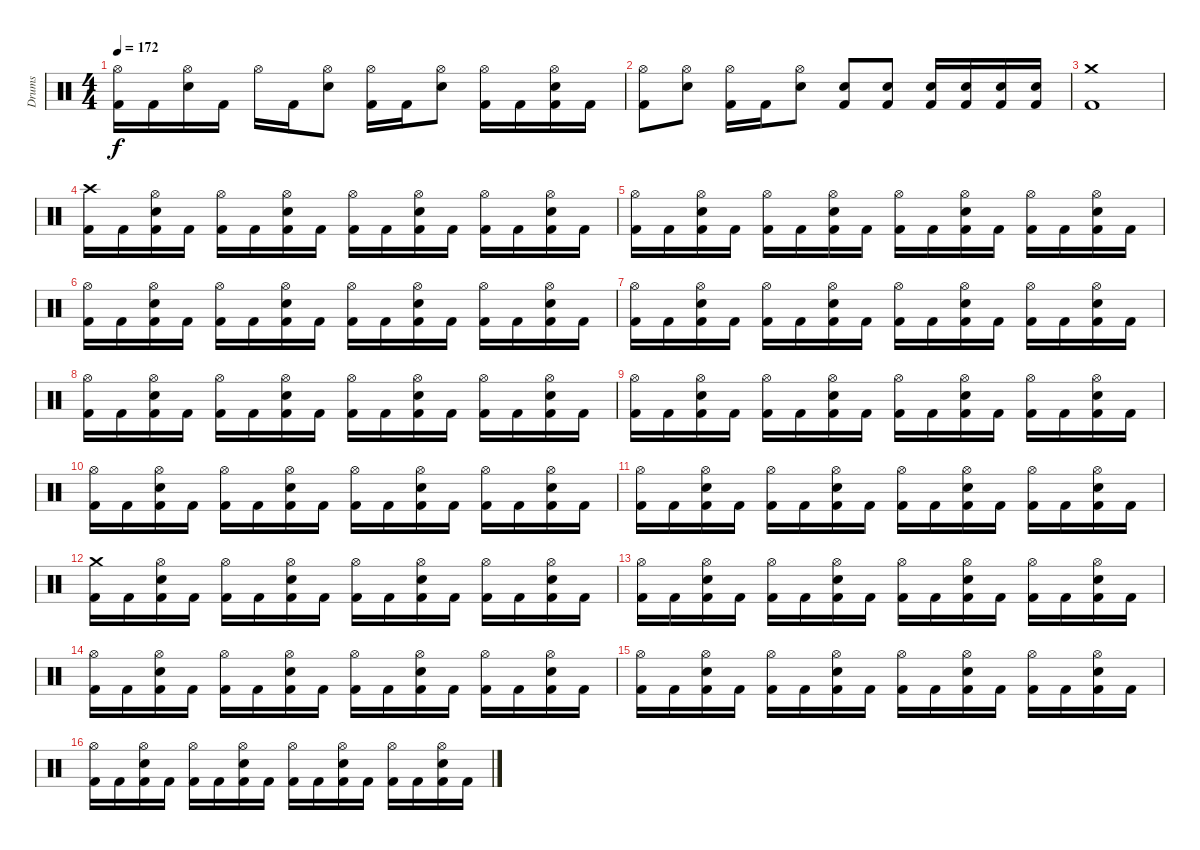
\track ("Drums" "Drums") {instrument percussion}
\staff {score}
\articulation defaults
\ts (4 4)
\tempo 172
\clef neutral
\ks c
("Kick (hit) 2" "Hi-Hat (open)").16{dy f} "Kick (hit) 2".16 ("Snare (hit) 2" "Hi-Hat (open)").16 "Kick (hit) 2".16 "Hi-Hat (open)".16 "Kick (hit) 2".16 ("Snare (hit) 2" "Hi-Hat (open)").8 ("Kick (hit) 2" "Hi-Hat (open)").16 "Kick (hit) 2".16 ("Snare (hit) 2" "Hi-Hat (open)").8 ("Kick (hit) 2" "Hi-Hat (open)").16 "Kick (hit) 2".16 ("Kick (hit) 2" "Snare (hit) 2" "Hi-Hat (open)").16 "Kick (hit) 2".16 |
("Kick (hit) 2" "Hi-Hat (open)").8 ("Snare (hit) 2" "Hi-Hat (open)").8 ("Kick (hit) 2" "Hi-Hat (open)").16 "Kick (hit) 2".16 ("Snare (hit) 2" "Hi-Hat (open)").8 ("Kick (hit) 2" "Snare (hit) 2").8 ("Kick (hit) 2" "Snare (hit) 2").8 ("Kick (hit) 2" "Snare (hit) 2").16 ("Kick (hit) 2" "Snare (hit) 2").16 ("Kick (hit) 2" "Snare (hit) 2").16 ("Kick (hit) 2" "Snare (hit) 2").16 |
("Kick (hit) 2" "Crash medium (hit)").1 |
\section ("" "")
("Kick (hit) 2" "Crash high (hit)").16 "Kick (hit) 2".16 ("Kick (hit) 2" "Snare (hit) 2" "Hi-Hat (open)").16 "Kick (hit) 2".16 ("Kick (hit) 2" "Hi-Hat (open)").16 "Kick (hit) 2".16 ("Kick (hit) 2" "Snare (hit) 2" "Hi-Hat (open)").16 "Kick (hit) 2".16 ("Kick (hit) 2" "Hi-Hat (open)").16 "Kick (hit) 2".16 ("Kick (hit) 2" "Snare (hit) 2" "Hi-Hat (open)").16 "Kick (hit) 2".16 ("Kick (hit) 2" "Hi-Hat (open)").16 "Kick (hit) 2".16 ("Kick (hit) 2" "Snare (hit) 2" "Hi-Hat (open)").16 "Kick (hit) 2".16 |
("Kick (hit) 2" "Hi-Hat (open)").16 "Kick (hit) 2".16 ("Kick (hit) 2" "Snare (hit) 2" "Hi-Hat (open)").16 "Kick (hit) 2".16 ("Kick (hit) 2" "Hi-Hat (open)").16 "Kick (hit) 2".16 ("Kick (hit) 2" "Snare (hit) 2" "Hi-Hat (open)").16 "Kick (hit) 2".16 ("Kick (hit) 2" "Hi-Hat (open)").16 "Kick (hit) 2".16 ("Kick (hit) 2" "Snare (hit) 2" "Hi-Hat (open)").16 "Kick (hit) 2".16 ("Kick (hit) 2" "Hi-Hat (open)").16 "Kick (hit) 2".16 ("Kick (hit) 2" "Snare (hit) 2" "Hi-Hat (open)").16 "Kick (hit) 2".16 |
("Kick (hit) 2" "Hi-Hat (open)").16 "Kick (hit) 2".16 ("Kick (hit) 2" "Snare (hit) 2" "Hi-Hat (open)").16 "Kick (hit) 2".16 ("Kick (hit) 2" "Hi-Hat (open)").16 "Kick (hit) 2".16 ("Kick (hit) 2" "Snare (hit) 2" "Hi-Hat (open)").16 "Kick (hit) 2".16 ("Kick (hit) 2" "Hi-Hat (open)").16 "Kick (hit) 2".16 ("Kick (hit) 2" "Snare (hit) 2" "Hi-Hat (open)").16 "Kick (hit) 2".16 ("Kick (hit) 2" "Hi-Hat (open)").16 "Kick (hit) 2".16 ("Kick (hit) 2" "Snare (hit) 2" "Hi-Hat (open)").16 "Kick (hit) 2".16 |
("Kick (hit) 2" "Hi-Hat (open)").16 "Kick (hit) 2".16 ("Kick (hit) 2" "Snare (hit) 2" "Hi-Hat (open)").16 "Kick (hit) 2".16 ("Kick (hit) 2" "Hi-Hat (open)").16 "Kick (hit) 2".16 ("Kick (hit) 2" "Snare (hit) 2" "Hi-Hat (open)").16 "Kick (hit) 2".16 ("Kick (hit) 2" "Hi-Hat (open)").16 "Kick (hit) 2".16 ("Kick (hit) 2" "Snare (hit) 2" "Hi-Hat (open)").16 "Kick (hit) 2".16 ("Kick (hit) 2" "Hi-Hat (open)").16 "Kick (hit) 2".16 ("Kick (hit) 2" "Snare (hit) 2" "Hi-Hat (open)").16 "Kick (hit) 2".16 |
("Kick (hit) 2" "Hi-Hat (open)").16 "Kick (hit) 2".16 ("Kick (hit) 2" "Snare (hit) 2" "Hi-Hat (open)").16 "Kick (hit) 2".16 ("Kick (hit) 2" "Hi-Hat (open)").16 "Kick (hit) 2".16 ("Kick (hit) 2" "Snare (hit) 2" "Hi-Hat (open)").16 "Kick (hit) 2".16 ("Kick (hit) 2" "Hi-Hat (open)").16 "Kick (hit) 2".16 ("Kick (hit) 2" "Snare (hit) 2" "Hi-Hat (open)").16 "Kick (hit) 2".16 ("Kick (hit) 2" "Hi-Hat (open)").16 "Kick (hit) 2".16 ("Kick (hit) 2" "Snare (hit) 2" "Hi-Hat (open)").16 "Kick (hit) 2".16 |
("Kick (hit) 2" "Hi-Hat (open)").16 "Kick (hit) 2".16 ("Kick (hit) 2" "Snare (hit) 2" "Hi-Hat (open)").16 "Kick (hit) 2".16 ("Kick (hit) 2" "Hi-Hat (open)").16 "Kick (hit) 2".16 ("Kick (hit) 2" "Snare (hit) 2" "Hi-Hat (open)").16 "Kick (hit) 2".16 ("Kick (hit) 2" "Hi-Hat (open)").16 "Kick (hit) 2".16 ("Kick (hit) 2" "Snare (hit) 2" "Hi-Hat (open)").16 "Kick (hit) 2".16 ("Kick (hit) 2" "Hi-Hat (open)").16 "Kick (hit) 2".16 ("Kick (hit) 2" "Snare (hit) 2" "Hi-Hat (open)").16 "Kick (hit) 2".16 |
("Kick (hit) 2" "Hi-Hat (open)").16 "Kick (hit) 2".16 ("Kick (hit) 2" "Snare (hit) 2" "Hi-Hat (open)").16 "Kick (hit) 2".16 ("Kick (hit) 2" "Hi-Hat (open)").16 "Kick (hit) 2".16 ("Kick (hit) 2" "Snare (hit) 2" "Hi-Hat (open)").16 "Kick (hit) 2".16 ("Kick (hit) 2" "Hi-Hat (open)").16 "Kick (hit) 2".16 ("Kick (hit) 2" "Snare (hit) 2" "Hi-Hat (open)").16 "Kick (hit) 2".16 ("Kick (hit) 2" "Hi-Hat (open)").16 "Kick (hit) 2".16 ("Kick (hit) 2" "Snare (hit) 2" "Hi-Hat (open)").16 "Kick (hit) 2".16 |
("Kick (hit) 2" "Hi-Hat (open)").16 "Kick (hit) 2".16 ("Kick (hit) 2" "Snare (hit) 2" "Hi-Hat (open)").16 "Kick (hit) 2".16 ("Kick (hit) 2" "Hi-Hat (open)").16 "Kick (hit) 2".16 ("Kick (hit) 2" "Snare (hit) 2" "Hi-Hat (open)").16 "Kick (hit) 2".16 ("Kick (hit) 2" "Hi-Hat (open)").16 "Kick (hit) 2".16 ("Kick (hit) 2" "Snare (hit) 2" "Hi-Hat (open)").16 "Kick (hit) 2".16 ("Kick (hit) 2" "Hi-Hat (open)").16 "Kick (hit) 2".16 ("Kick (hit) 2" "Snare (hit) 2" "Hi-Hat (open)").16 "Kick (hit) 2".16 |
("Kick (hit) 2" "Crash medium (hit)").16 "Kick (hit) 2".16 ("Kick (hit) 2" "Snare (hit) 2" "Hi-Hat (open)").16 "Kick (hit) 2".16 ("Kick (hit) 2" "Hi-Hat (open)").16 "Kick (hit) 2".16 ("Kick (hit) 2" "Snare (hit) 2" "Hi-Hat (open)").16 "Kick (hit) 2".16 ("Kick (hit) 2" "Hi-Hat (open)").16 "Kick (hit) 2".16 ("Kick (hit) 2" "Snare (hit) 2" "Hi-Hat (open)").16 "Kick (hit) 2".16 ("Kick (hit) 2" "Hi-Hat (open)").16 "Kick (hit) 2".16 ("Kick (hit) 2" "Snare (hit) 2" "Hi-Hat (open)").16 "Kick (hit) 2".16 |
("Kick (hit) 2" "Hi-Hat (open)").16 "Kick (hit) 2".16 ("Kick (hit) 2" "Snare (hit) 2" "Hi-Hat (open)").16 "Kick (hit) 2".16 ("Kick (hit) 2" "Hi-Hat (open)").16 "Kick (hit) 2".16 ("Kick (hit) 2" "Snare (hit) 2" "Hi-Hat (open)").16 "Kick (hit) 2".16 ("Kick (hit) 2" "Hi-Hat (open)").16 "Kick (hit) 2".16 ("Kick (hit) 2" "Snare (hit) 2" "Hi-Hat (open)").16 "Kick (hit) 2".16 ("Kick (hit) 2" "Hi-Hat (open)").16 "Kick (hit) 2".16 ("Kick (hit) 2" "Snare (hit) 2" "Hi-Hat (open)").16 "Kick (hit) 2".16 |
("Kick (hit) 2" "Hi-Hat (open)").16 "Kick (hit) 2".16 ("Kick (hit) 2" "Snare (hit) 2" "Hi-Hat (open)").16 "Kick (hit) 2".16 ("Kick (hit) 2" "Hi-Hat (open)").16 "Kick (hit) 2".16 ("Kick (hit) 2" "Snare (hit) 2" "Hi-Hat (open)").16 "Kick (hit) 2".16 ("Kick (hit) 2" "Hi-Hat (open)").16 "Kick (hit) 2".16 ("Kick (hit) 2" "Snare (hit) 2" "Hi-Hat (open)").16 "Kick (hit) 2".16 ("Kick (hit) 2" "Hi-Hat (open)").16 "Kick (hit) 2".16 ("Kick (hit) 2" "Snare (hit) 2" "Hi-Hat (open)").16 "Kick (hit) 2".16 |
("Kick (hit) 2" "Hi-Hat (open)").16 "Kick (hit) 2".16 ("Kick (hit) 2" "Snare (hit) 2" "Hi-Hat (open)").16 "Kick (hit) 2".16 ("Kick (hit) 2" "Hi-Hat (open)").16 "Kick (hit) 2".16 ("Kick (hit) 2" "Snare (hit) 2" "Hi-Hat (open)").16 "Kick (hit) 2".16 ("Kick (hit) 2" "Hi-Hat (open)").16 "Kick (hit) 2".16 ("Kick (hit) 2" "Snare (hit) 2" "Hi-Hat (open)").16 "Kick (hit) 2".16 ("Kick (hit) 2" "Hi-Hat (open)").16 "Kick (hit) 2".16 ("Kick (hit) 2" "Snare (hit) 2" "Hi-Hat (open)").16 "Kick (hit) 2".16 |
("Kick (hit) 2" "Hi-Hat (open)").16 "Kick (hit) 2".16 ("Kick (hit) 2" "Snare (hit) 2" "Hi-Hat (open)").16 "Kick (hit) 2".16 ("Kick (hit) 2" "Hi-Hat (open)").16 "Kick (hit) 2".16 ("Kick (hit) 2" "Snare (hit) 2" "Hi-Hat (open)").16 "Kick (hit) 2".16 ("Kick (hit) 2" "Hi-Hat (open)").16 "Kick (hit) 2".16 ("Kick (hit) 2" "Snare (hit) 2" "Hi-Hat (open)").16 "Kick (hit) 2".16 ("Kick (hit) 2" "Hi-Hat (open)").16 "Kick (hit) 2".16 ("Kick (hit) 2" "Snare (hit) 2" "Hi-Hat (open)").16 "Kick (hit) 2".16
